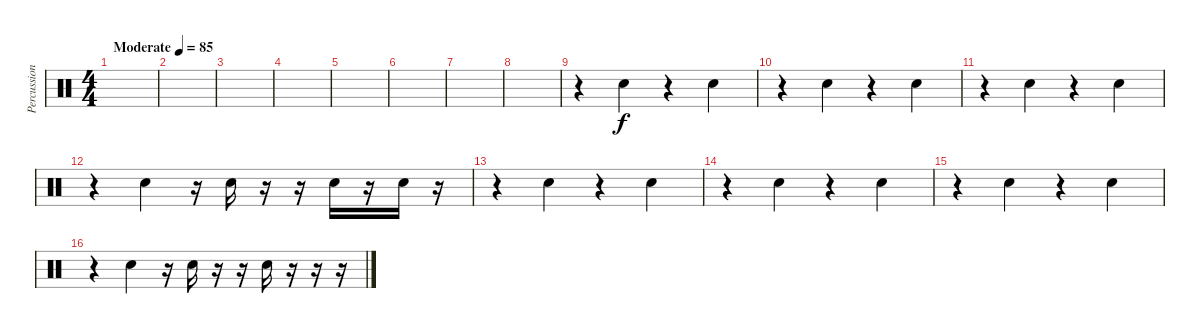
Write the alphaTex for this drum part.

\track ("Percussion" "Percussion") {instrument percussion}
\staff {score}
\articulation defaults
\ts (4 4)
\tempo (85 "Moderate")
\clef neutral
\ks c
|
|
|
|
|
|
|
|
r.4 "Snare (hit) 2".4 r.4 "Snare (hit) 2".4 |
r.4 "Snare (hit) 2".4 r.4 "Snare (hit) 2".4 |
r.4 "Snare (hit) 2".4 r.4 "Snare (hit) 2".4 |
r.4 "Snare (hit) 2".4 r.16 "Snare (hit) 2".16 r.16 r.16 "Snare (hit) 2".16 r.16 "Snare (hit) 2".16 r.16 |
r.4 "Snare (hit) 2".4 r.4 "Snare (hit) 2".4 |
r.4 "Snare (hit) 2".4 r.4 "Snare (hit) 2".4 |
r.4 "Snare (hit) 2".4 r.4 "Snare (hit) 2".4 |
r.4 "Snare (hit) 2".4 r.16 "Snare (hit) 2".16 r.16 r.16 "Snare (hit) 2".16 r.16 r.16 r.16
